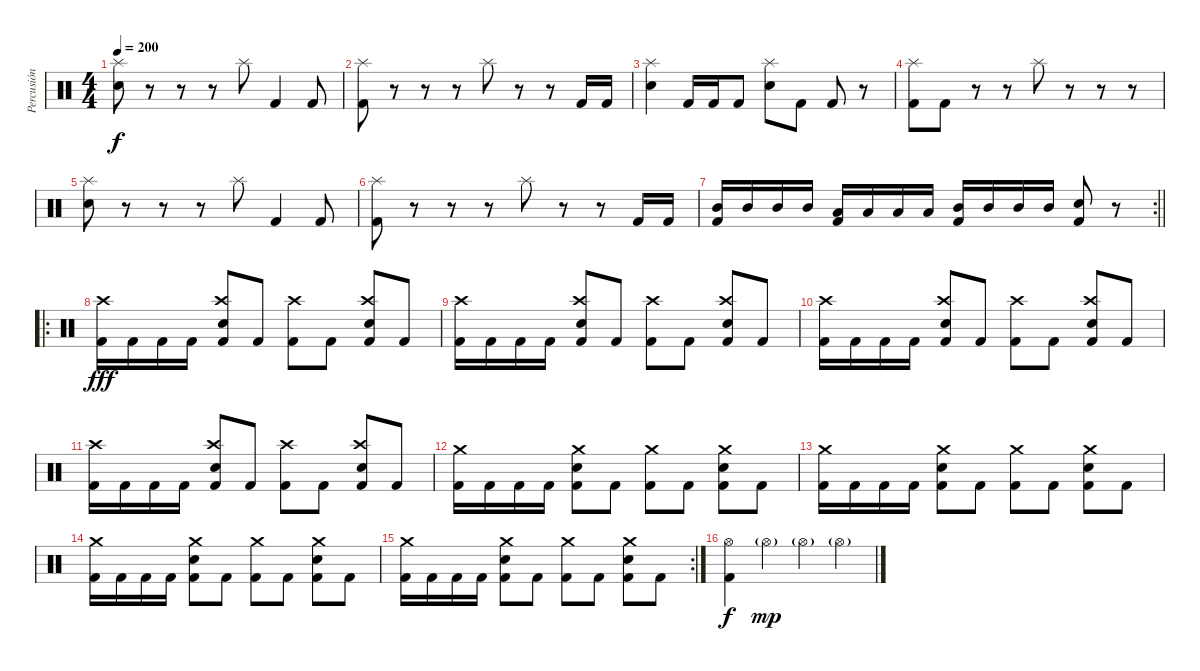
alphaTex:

\track ("Percusión" "Percusión") {instrument percussion}
\staff {score}
\articulation defaults
\ts (4 4)
\tempo 200
\clef neutral
\ks c
("Splash (hit)" "Electric Snare (hit)").8{dy f} r.8 r.8 r.8 "Splash (hit)".8 "Kick (hit) 2".4 "Kick (hit) 2".8 |
("Splash (hit)" "Kick (hit) 2").8 r.8 r.8 r.8 "Splash (hit)".8 r.8 r.8 "Kick (hit) 2".16 "Kick (hit) 2".16 |
("Splash (hit)" "Electric Snare (hit)").4 "Kick (hit) 2".16 "Kick (hit) 2".16 "Kick (hit) 2".8 ("Splash (hit)" "Electric Snare (hit)").8 "Kick (hit) 2".8 "Kick (hit) 2".8 r.8 |
("Splash (hit)" "Kick (hit) 2").8 "Kick (hit) 2".8 r.8 r.8 "Splash (hit)".8 r.8 r.8 r.8 |
("Splash (hit)" "Electric Snare (hit)").8 r.8 r.8 r.8 "Splash (hit)".8 "Kick (hit) 2".4 "Kick (hit) 2".8 |
("Splash (hit)" "Kick (hit) 2").8 r.8 r.8 r.8 "Splash (hit)".8 r.8 r.8 "Kick (hit) 2".16 "Kick (hit) 2".16 |
\rc 2
\barLineRight lightlight
("Mid Tom (hit)" "Kick (hit) 2").16 "Mid Tom (hit)".16 "Mid Tom (hit)".16 "Mid Tom (hit)".16 ("Low Tom (hit)" "Kick (hit) 2").16 "Low Tom (hit)".16 "Low Tom (hit)".16 "Low Tom (hit)".16 ("Mid Tom (hit)" "Kick (hit) 2").16 "Mid Tom (hit)".16 "Mid Tom (hit)".16 "Mid Tom (hit)".16 ("Electric Snare (hit)" "Kick (hit) 2").8 r.8 |
\ro
("Crash high (hit)" "Kick (hit) 2").16{dy fff} "Kick (hit) 2".16 "Kick (hit) 2".16 "Kick (hit) 2".16 ("Crash high (hit)" "Snare (hit) 2" "Kick (hit) 2").8 "Kick (hit) 2".8 ("Crash high (hit)" "Kick (hit) 2").8 "Kick (hit) 2".8 ("Crash high (hit)" "Snare (hit) 2" "Kick (hit) 2").8 "Kick (hit) 2".8 |
("Crash high (hit)" "Kick (hit) 2").16 "Kick (hit) 2".16 "Kick (hit) 2".16 "Kick (hit) 2".16 ("Crash high (hit)" "Snare (hit) 2" "Kick (hit) 2").8 "Kick (hit) 2".8 ("Crash high (hit)" "Kick (hit) 2").8 "Kick (hit) 2".8 ("Crash high (hit)" "Snare (hit) 2" "Kick (hit) 2").8 "Kick (hit) 2".8 |
("Crash high (hit)" "Kick (hit) 2").16 "Kick (hit) 2".16 "Kick (hit) 2".16 "Kick (hit) 2".16 ("Crash high (hit)" "Snare (hit) 2" "Kick (hit) 2").8 "Kick (hit) 2".8 ("Crash high (hit)" "Kick (hit) 2").8 "Kick (hit) 2".8 ("Crash high (hit)" "Snare (hit) 2" "Kick (hit) 2").8 "Kick (hit) 2".8 |
("Crash high (hit)" "Kick (hit) 2").16 "Kick (hit) 2".16 "Kick (hit) 2".16 "Kick (hit) 2".16 ("Crash high (hit)" "Snare (hit) 2" "Kick (hit) 2").8 "Kick (hit) 2".8 ("Crash high (hit)" "Kick (hit) 2").8 "Kick (hit) 2".8 ("Crash high (hit)" "Snare (hit) 2" "Kick (hit) 2").8 "Kick (hit) 2".8 |
("Crash medium (hit)" "Kick (hit) 2").16 "Kick (hit) 2".16 "Kick (hit) 2".16 "Kick (hit) 2".16 ("Crash medium (hit)" "Snare (hit) 2" "Kick (hit) 2").8 "Kick (hit) 2".8 ("Crash medium (hit)" "Kick (hit) 2").8 "Kick (hit) 2".8 ("Crash medium (hit)" "Snare (hit) 2" "Kick (hit) 2").8 "Kick (hit) 2".8 |
("Crash medium (hit)" "Kick (hit) 2").16 "Kick (hit) 2".16 "Kick (hit) 2".16 "Kick (hit) 2".16 ("Crash medium (hit)" "Snare (hit) 2" "Kick (hit) 2").8 "Kick (hit) 2".8 ("Crash medium (hit)" "Kick (hit) 2").8 "Kick (hit) 2".8 ("Crash medium (hit)" "Snare (hit) 2" "Kick (hit) 2").8 "Kick (hit) 2".8 |
("Crash medium (hit)" "Kick (hit) 2").16 "Kick (hit) 2".16 "Kick (hit) 2".16 "Kick (hit) 2".16 ("Crash medium (hit)" "Snare (hit) 2" "Kick (hit) 2").8 "Kick (hit) 2".8 ("Crash medium (hit)" "Kick (hit) 2").8 "Kick (hit) 2".8 ("Crash medium (hit)" "Snare (hit) 2" "Kick (hit) 2").8 "Kick (hit) 2".8 |
\rc 2
("Crash medium (hit)" "Kick (hit) 2").16 "Kick (hit) 2".16 "Kick (hit) 2".16 "Kick (hit) 2".16 ("Crash medium (hit)" "Snare (hit) 2" "Kick (hit) 2").8 "Kick (hit) 2".8 ("Crash medium (hit)" "Kick (hit) 2").8 "Kick (hit) 2".8 ("Crash medium (hit)" "Snare (hit) 2" "Kick (hit) 2").8 "Kick (hit) 2".8 |
("Hi-Hat (open)" "Kick (hit) 2").4{dy f} "Hi-Hat (open)"{g}.4{dy mp} "Hi-Hat (open)"{g}.4 "Hi-Hat (open)"{g}.4
